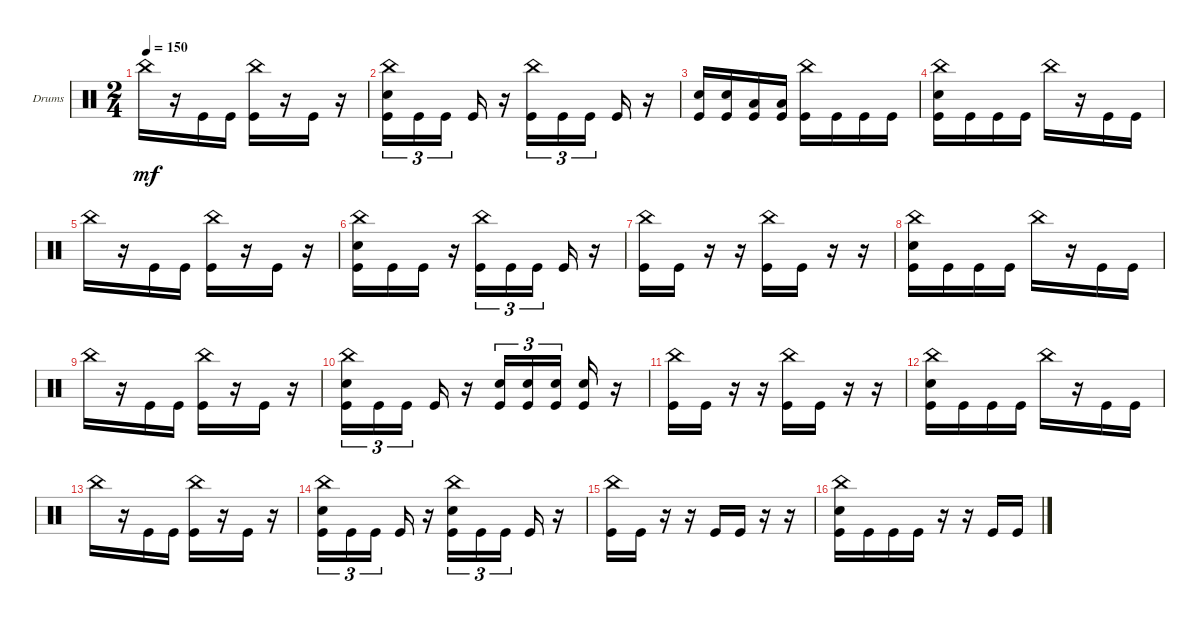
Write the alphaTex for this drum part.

\bracketExtendMode groupsimilarinstruments
\firstSystemTrackNameOrientation horizontal
\otherSystemsTrackNameOrientation horizontal
\track ("Drumkit" "Drums") {instrument percussion}
\staff {score}
\articulation defaults
\ts (2 4)
\tempo 150
\clef neutral
\ks c "China (hit)".16{dy mf}
r.16 "Kick (hit)".16 "Kick (hit)".16 ("Kick (hit)" "China (hit)").16 r.16 "Kick (hit)".16 r.16 |
("Kick (hit)" "China (hit)" "Snare (hit) 2").16{tu (3 2)} "Kick (hit)".16{tu (3 2)} "Kick (hit)".16{tu (3 2)} "Kick (hit)".16 r.16 ("Kick (hit)" "China (hit)").16{tu (3 2)} "Kick (hit)".16{tu (3 2)} "Kick (hit)".16{tu (3 2)} "Kick (hit)".16 r.16 |
("Kick (hit)" "Snare (hit) 2").16 ("Kick (hit)" "Snare (hit) 2").16 ("Kick (hit)" "Low Tom (hit)").16 ("Kick (hit)" "Low Tom (hit)").16 ("Kick (hit)" "China (hit)").16 "Kick (hit)".16 "Kick (hit)".16 "Kick (hit)".16 |
("Kick (hit)" "China (hit)" "Snare (hit) 2").16 "Kick (hit)".16 "Kick (hit)".16 "Kick (hit)".16 "China (hit)".16 r.16 "Kick (hit)".16 "Kick (hit)".16 |
"China (hit)".16 r.16 "Kick (hit)".16 "Kick (hit)".16 ("Kick (hit)" "China (hit)").16 r.16 "Kick (hit)".16 r.16 |
("Kick (hit)" "China (hit)" "Snare (hit) 2").16 "Kick (hit)".16 "Kick (hit)".16 r.16 ("Kick (hit)" "China (hit)").16{tu (3 2)} "Kick (hit)".16{tu (3 2)} "Kick (hit)".16{tu (3 2)} "Kick (hit)".16 r.16 |
("Kick (hit)" "China (hit)").16 "Kick (hit)".16 r.16 r.16 ("Kick (hit)" "China (hit)").16 "Kick (hit)".16 r.16 r.16 |
("Kick (hit)" "China (hit)" "Snare (hit) 2").16 "Kick (hit)".16 "Kick (hit)".16 "Kick (hit)".16 "China (hit)".16 r.16 "Kick (hit)".16 "Kick (hit)".16 |
"China (hit)".16 r.16 "Kick (hit)".16 "Kick (hit)".16 ("Kick (hit)" "China (hit)").16 r.16 "Kick (hit)".16 r.16 |
("Kick (hit)" "China (hit)" "Snare (hit) 2").16{tu (3 2)} "Kick (hit)".16{tu (3 2)} "Kick (hit)".16{tu (3 2)} "Kick (hit)".16 r.16 ("Kick (hit)" "Snare (hit) 2").16{tu (3 2)} ("Kick (hit)" "Snare (hit) 2").16{tu (3 2)} ("Kick (hit)" "Snare (hit) 2").16{tu (3 2)} ("Kick (hit)" "Snare (hit) 2").16 r.16 |
("Kick (hit)" "China (hit)").16 "Kick (hit)".16 r.16 r.16 ("Kick (hit)" "China (hit)").16 "Kick (hit)".16 r.16 r.16 |
("Kick (hit)" "China (hit)" "Snare (hit) 2").16 "Kick (hit)".16 "Kick (hit)".16 "Kick (hit)".16 "China (hit)".16 r.16 "Kick (hit)".16 "Kick (hit)".16 |
"China (hit)".16 r.16 "Kick (hit)".16 "Kick (hit)".16 ("Kick (hit)" "China (hit)").16 r.16 "Kick (hit)".16 r.16 |
("Kick (hit)" "China (hit)" "Snare (hit) 2").16{tu (3 2)} "Kick (hit)".16{tu (3 2)} "Kick (hit)".16{tu (3 2)} "Kick (hit)".16 r.16 ("Kick (hit)" "Snare (hit) 2" "China (hit)").16{tu (3 2)} "Kick (hit)".16{tu (3 2)} "Kick (hit)".16{tu (3 2)} "Kick (hit)".16 r.16 |
("Kick (hit)" "China (hit)").16 "Kick (hit)".16 r.16 r.16 "Kick (hit)".16 "Kick (hit)".16 r.16 r.16 |
("Kick (hit)" "China (hit)" "Snare (hit) 2").16 "Kick (hit)".16 "Kick (hit)".16 "Kick (hit)".16 r.16 r.16 "Kick (hit)".16 "Kick (hit)".16
